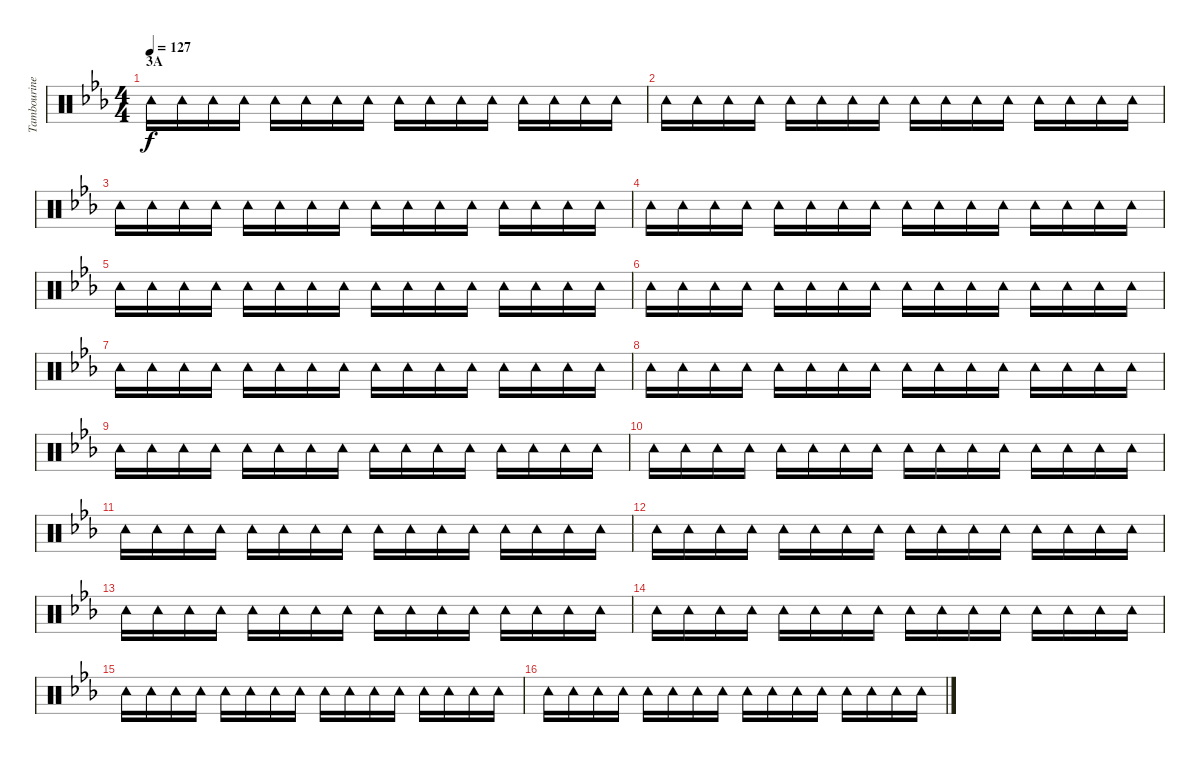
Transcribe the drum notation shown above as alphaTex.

\track ("Tambourine" "Tambourine") {instrument percussion}
\staff {score}
\articulation defaults
\ts (4 4)
\section ("" "3A")
\tempo 127
\clef neutral
\ks eb "Tambourine (hit)".16{dy f} "Tambourine (hit)".16 "Tambourine (hit)".16 "Tambourine (hit)".16 "Tambourine (hit)".16 "Tambourine (hit)".16 "Tambourine (hit)".16 "Tambourine (hit)".16 "Tambourine (hit)".16 "Tambourine (hit)".16 "Tambourine (hit)".16 "Tambourine (hit)".16 "Tambourine (hit)".16 "Tambourine (hit)".16 "Tambourine (hit)".16 "Tambourine (hit)".16
|
"Tambourine (hit)".16 "Tambourine (hit)".16 "Tambourine (hit)".16 "Tambourine (hit)".16 "Tambourine (hit)".16 "Tambourine (hit)".16 "Tambourine (hit)".16 "Tambourine (hit)".16 "Tambourine (hit)".16 "Tambourine (hit)".16 "Tambourine (hit)".16 "Tambourine (hit)".16 "Tambourine (hit)".16 "Tambourine (hit)".16 "Tambourine (hit)".16 "Tambourine (hit)".16 |
"Tambourine (hit)".16 "Tambourine (hit)".16 "Tambourine (hit)".16 "Tambourine (hit)".16 "Tambourine (hit)".16 "Tambourine (hit)".16 "Tambourine (hit)".16 "Tambourine (hit)".16 "Tambourine (hit)".16 "Tambourine (hit)".16 "Tambourine (hit)".16 "Tambourine (hit)".16 "Tambourine (hit)".16 "Tambourine (hit)".16 "Tambourine (hit)".16 "Tambourine (hit)".16 |
"Tambourine (hit)".16 "Tambourine (hit)".16 "Tambourine (hit)".16 "Tambourine (hit)".16 "Tambourine (hit)".16 "Tambourine (hit)".16 "Tambourine (hit)".16 "Tambourine (hit)".16 "Tambourine (hit)".16 "Tambourine (hit)".16 "Tambourine (hit)".16 "Tambourine (hit)".16 "Tambourine (hit)".16 "Tambourine (hit)".16 "Tambourine (hit)".16 "Tambourine (hit)".16 |
"Tambourine (hit)".16 "Tambourine (hit)".16 "Tambourine (hit)".16 "Tambourine (hit)".16 "Tambourine (hit)".16 "Tambourine (hit)".16 "Tambourine (hit)".16 "Tambourine (hit)".16 "Tambourine (hit)".16 "Tambourine (hit)".16 "Tambourine (hit)".16 "Tambourine (hit)".16 "Tambourine (hit)".16 "Tambourine (hit)".16 "Tambourine (hit)".16 "Tambourine (hit)".16 |
"Tambourine (hit)".16 "Tambourine (hit)".16 "Tambourine (hit)".16 "Tambourine (hit)".16 "Tambourine (hit)".16 "Tambourine (hit)".16 "Tambourine (hit)".16 "Tambourine (hit)".16 "Tambourine (hit)".16 "Tambourine (hit)".16 "Tambourine (hit)".16 "Tambourine (hit)".16 "Tambourine (hit)".16 "Tambourine (hit)".16 "Tambourine (hit)".16 "Tambourine (hit)".16 |
"Tambourine (hit)".16 "Tambourine (hit)".16 "Tambourine (hit)".16 "Tambourine (hit)".16 "Tambourine (hit)".16 "Tambourine (hit)".16 "Tambourine (hit)".16 "Tambourine (hit)".16 "Tambourine (hit)".16 "Tambourine (hit)".16 "Tambourine (hit)".16 "Tambourine (hit)".16 "Tambourine (hit)".16 "Tambourine (hit)".16 "Tambourine (hit)".16 "Tambourine (hit)".16 |
"Tambourine (hit)".16 "Tambourine (hit)".16 "Tambourine (hit)".16 "Tambourine (hit)".16 "Tambourine (hit)".16 "Tambourine (hit)".16 "Tambourine (hit)".16 "Tambourine (hit)".16 "Tambourine (hit)".16 "Tambourine (hit)".16 "Tambourine (hit)".16 "Tambourine (hit)".16 "Tambourine (hit)".16 "Tambourine (hit)".16 "Tambourine (hit)".16 "Tambourine (hit)".16 |
"Tambourine (hit)".16 "Tambourine (hit)".16 "Tambourine (hit)".16 "Tambourine (hit)".16 "Tambourine (hit)".16 "Tambourine (hit)".16 "Tambourine (hit)".16 "Tambourine (hit)".16 "Tambourine (hit)".16 "Tambourine (hit)".16 "Tambourine (hit)".16 "Tambourine (hit)".16 "Tambourine (hit)".16 "Tambourine (hit)".16 "Tambourine (hit)".16 "Tambourine (hit)".16 |
"Tambourine (hit)".16 "Tambourine (hit)".16 "Tambourine (hit)".16 "Tambourine (hit)".16 "Tambourine (hit)".16 "Tambourine (hit)".16 "Tambourine (hit)".16 "Tambourine (hit)".16 "Tambourine (hit)".16 "Tambourine (hit)".16 "Tambourine (hit)".16 "Tambourine (hit)".16 "Tambourine (hit)".16 "Tambourine (hit)".16 "Tambourine (hit)".16 "Tambourine (hit)".16 |
"Tambourine (hit)".16 "Tambourine (hit)".16 "Tambourine (hit)".16 "Tambourine (hit)".16 "Tambourine (hit)".16 "Tambourine (hit)".16 "Tambourine (hit)".16 "Tambourine (hit)".16 "Tambourine (hit)".16 "Tambourine (hit)".16 "Tambourine (hit)".16 "Tambourine (hit)".16 "Tambourine (hit)".16 "Tambourine (hit)".16 "Tambourine (hit)".16 "Tambourine (hit)".16 |
"Tambourine (hit)".16 "Tambourine (hit)".16 "Tambourine (hit)".16 "Tambourine (hit)".16 "Tambourine (hit)".16 "Tambourine (hit)".16 "Tambourine (hit)".16 "Tambourine (hit)".16 "Tambourine (hit)".16 "Tambourine (hit)".16 "Tambourine (hit)".16 "Tambourine (hit)".16 "Tambourine (hit)".16 "Tambourine (hit)".16 "Tambourine (hit)".16 "Tambourine (hit)".16 |
"Tambourine (hit)".16 "Tambourine (hit)".16 "Tambourine (hit)".16 "Tambourine (hit)".16 "Tambourine (hit)".16 "Tambourine (hit)".16 "Tambourine (hit)".16 "Tambourine (hit)".16 "Tambourine (hit)".16 "Tambourine (hit)".16 "Tambourine (hit)".16 "Tambourine (hit)".16 "Tambourine (hit)".16 "Tambourine (hit)".16 "Tambourine (hit)".16 "Tambourine (hit)".16 |
"Tambourine (hit)".16 "Tambourine (hit)".16 "Tambourine (hit)".16 "Tambourine (hit)".16 "Tambourine (hit)".16 "Tambourine (hit)".16 "Tambourine (hit)".16 "Tambourine (hit)".16 "Tambourine (hit)".16 "Tambourine (hit)".16 "Tambourine (hit)".16 "Tambourine (hit)".16 "Tambourine (hit)".16 "Tambourine (hit)".16 "Tambourine (hit)".16 "Tambourine (hit)".16 |
"Tambourine (hit)".16 "Tambourine (hit)".16 "Tambourine (hit)".16 "Tambourine (hit)".16 "Tambourine (hit)".16 "Tambourine (hit)".16 "Tambourine (hit)".16 "Tambourine (hit)".16 "Tambourine (hit)".16 "Tambourine (hit)".16 "Tambourine (hit)".16 "Tambourine (hit)".16 "Tambourine (hit)".16 "Tambourine (hit)".16 "Tambourine (hit)".16 "Tambourine (hit)".16 |
"Tambourine (hit)".16 "Tambourine (hit)".16 "Tambourine (hit)".16 "Tambourine (hit)".16 "Tambourine (hit)".16 "Tambourine (hit)".16 "Tambourine (hit)".16 "Tambourine (hit)".16 "Tambourine (hit)".16 "Tambourine (hit)".16 "Tambourine (hit)".16 "Tambourine (hit)".16 "Tambourine (hit)".16 "Tambourine (hit)".16 "Tambourine (hit)".16 "Tambourine (hit)".16
